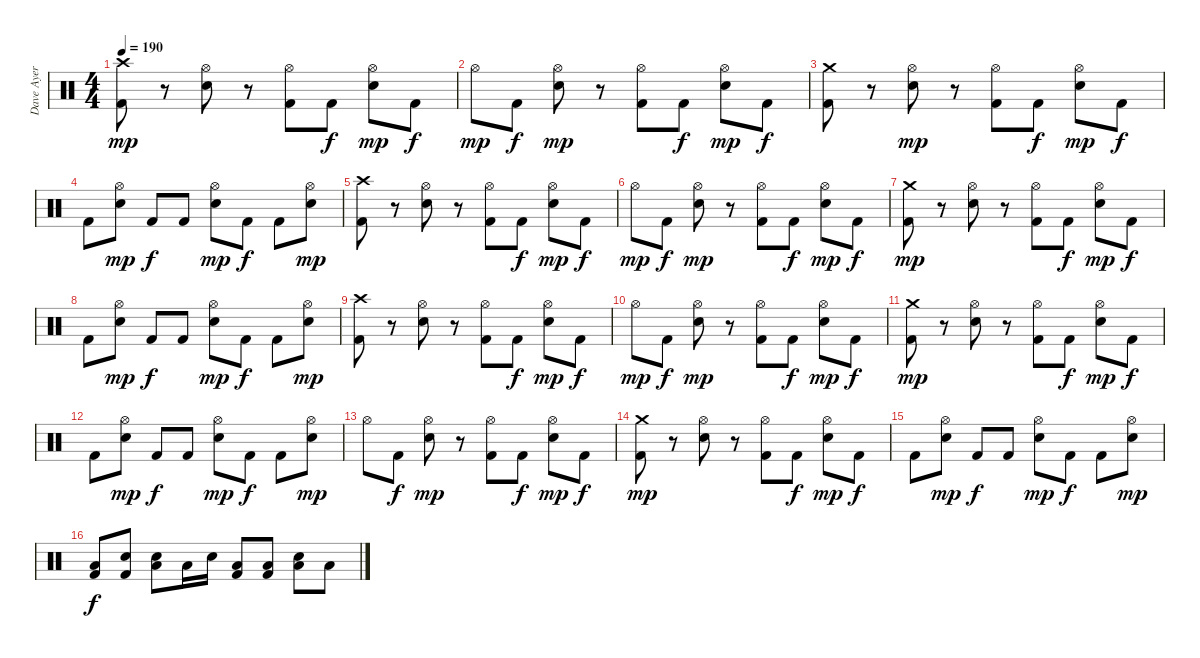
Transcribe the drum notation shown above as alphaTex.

\track ("Dave Ayer" "Dave Ayer") {instrument percussion}
\staff {score}
\articulation defaults
\ts (4 4)
\tempo 190
\clef neutral
\ks c
("Crash high (hit)" "Kick (hit) 2").8{dy mp} r.8 ("Hi-Hat (open)" "Snare (hit) 2").8 r.8 ("Hi-Hat (open)" "Kick (hit) 2").8 "Kick (hit) 2".8{dy f} ("Hi-Hat (open)" "Snare (hit) 2").8{dy mp} "Kick (hit) 2".8{dy f} |
"Hi-Hat (open)".8{dy mp} "Kick (hit) 2".8{dy f} ("Hi-Hat (open)" "Snare (hit) 2").8{dy mp} r.8 ("Hi-Hat (open)" "Kick (hit) 2").8 "Kick (hit) 2".8{dy f} ("Hi-Hat (open)" "Snare (hit) 2").8{dy mp} "Kick (hit) 2".8{dy f} |
("Crash medium (hit)" "Kick (hit) 2").8 r.8 ("Hi-Hat (open)" "Snare (hit) 2").8{dy mp} r.8 ("Hi-Hat (open)" "Kick (hit) 2").8 "Kick (hit) 2".8{dy f} ("Hi-Hat (open)" "Snare (hit) 2").8{dy mp} "Kick (hit) 2".8{dy f} |
"Kick (hit) 2".8 ("Hi-Hat (open)" "Snare (hit) 2").8{dy mp} "Kick (hit) 2".8{dy f} "Kick (hit) 2".8 ("Hi-Hat (open)" "Snare (hit) 2").8{dy mp} "Kick (hit) 2".8{dy f} "Kick (hit) 2".8 ("Hi-Hat (open)" "Snare (hit) 2").8{dy mp} |
("Crash high (hit)" "Kick (hit) 2").8 r.8 ("Hi-Hat (open)" "Snare (hit) 2").8 r.8 ("Hi-Hat (open)" "Kick (hit) 2").8 "Kick (hit) 2".8{dy f} ("Hi-Hat (open)" "Snare (hit) 2").8{dy mp} "Kick (hit) 2".8{dy f} |
"Hi-Hat (open)".8{dy mp} "Kick (hit) 2".8{dy f} ("Hi-Hat (open)" "Snare (hit) 2").8{dy mp} r.8 ("Hi-Hat (open)" "Kick (hit) 2").8 "Kick (hit) 2".8{dy f} ("Hi-Hat (open)" "Snare (hit) 2").8{dy mp} "Kick (hit) 2".8{dy f} |
("Crash medium (hit)" "Kick (hit) 2").8{dy mp} r.8 ("Hi-Hat (open)" "Snare (hit) 2").8 r.8 ("Hi-Hat (open)" "Kick (hit) 2").8 "Kick (hit) 2".8{dy f} ("Hi-Hat (open)" "Snare (hit) 2").8{dy mp} "Kick (hit) 2".8{dy f} |
"Kick (hit) 2".8 ("Hi-Hat (open)" "Snare (hit) 2").8{dy mp} "Kick (hit) 2".8{dy f} "Kick (hit) 2".8 ("Hi-Hat (open)" "Snare (hit) 2").8{dy mp} "Kick (hit) 2".8{dy f} "Kick (hit) 2".8 ("Hi-Hat (open)" "Snare (hit) 2").8{dy mp} |
("Crash high (hit)" "Kick (hit) 2").8 r.8 ("Hi-Hat (open)" "Snare (hit) 2").8 r.8 ("Hi-Hat (open)" "Kick (hit) 2").8 "Kick (hit) 2".8{dy f} ("Hi-Hat (open)" "Snare (hit) 2").8{dy mp} "Kick (hit) 2".8{dy f} |
"Hi-Hat (open)".8{dy mp} "Kick (hit) 2".8{dy f} ("Hi-Hat (open)" "Snare (hit) 2").8{dy mp} r.8 ("Hi-Hat (open)" "Kick (hit) 2").8 "Kick (hit) 2".8{dy f} ("Hi-Hat (open)" "Snare (hit) 2").8{dy mp} "Kick (hit) 2".8{dy f} |
("Crash medium (hit)" "Kick (hit) 2").8{dy mp} r.8 ("Hi-Hat (open)" "Snare (hit) 2").8 r.8 ("Hi-Hat (open)" "Kick (hit) 2").8 "Kick (hit) 2".8{dy f} ("Hi-Hat (open)" "Snare (hit) 2").8{dy mp} "Kick (hit) 2".8{dy f} |
"Kick (hit) 2".8 ("Hi-Hat (open)" "Snare (hit) 2").8{dy mp} "Kick (hit) 2".8{dy f} "Kick (hit) 2".8 ("Hi-Hat (open)" "Snare (hit) 2").8{dy mp} "Kick (hit) 2".8{dy f} "Kick (hit) 2".8 ("Hi-Hat (open)" "Snare (hit) 2").8{dy mp} |
"Hi-Hat (open)".8 "Kick (hit) 2".8{dy f} ("Hi-Hat (open)" "Snare (hit) 2").8{dy mp} r.8 ("Hi-Hat (open)" "Kick (hit) 2").8 "Kick (hit) 2".8{dy f} ("Hi-Hat (open)" "Snare (hit) 2").8{dy mp} "Kick (hit) 2".8{dy f} |
("Crash medium (hit)" "Kick (hit) 2").8{dy mp} r.8 ("Hi-Hat (open)" "Snare (hit) 2").8 r.8 ("Hi-Hat (open)" "Kick (hit) 2").8 "Kick (hit) 2".8{dy f} ("Hi-Hat (open)" "Snare (hit) 2").8{dy mp} "Kick (hit) 2".8{dy f} |
"Kick (hit) 2".8 ("Hi-Hat (open)" "Snare (hit) 2").8{dy mp} "Kick (hit) 2".8{dy f} "Kick (hit) 2".8 ("Hi-Hat (open)" "Snare (hit) 2").8{dy mp} "Kick (hit) 2".8{dy f} "Kick (hit) 2".8 ("Hi-Hat (open)" "Snare (hit) 2").8{dy mp} |
("Low Floor Tom (hit)" "Kick (hit) 2").8{dy f} ("Snare (hit)" "Kick (hit) 2").8 ("Low Floor Tom (hit)" "Snare (hit) 2").8 "Low Floor Tom (hit)".16 "Snare (hit) 2".16 ("Low Floor Tom (hit)" "Kick (hit) 2").8 ("Low Floor Tom (hit)" "Kick (hit) 2").8 ("Low Floor Tom (hit)" "Snare (hit) 2").8 "Low Floor Tom (hit)".8
